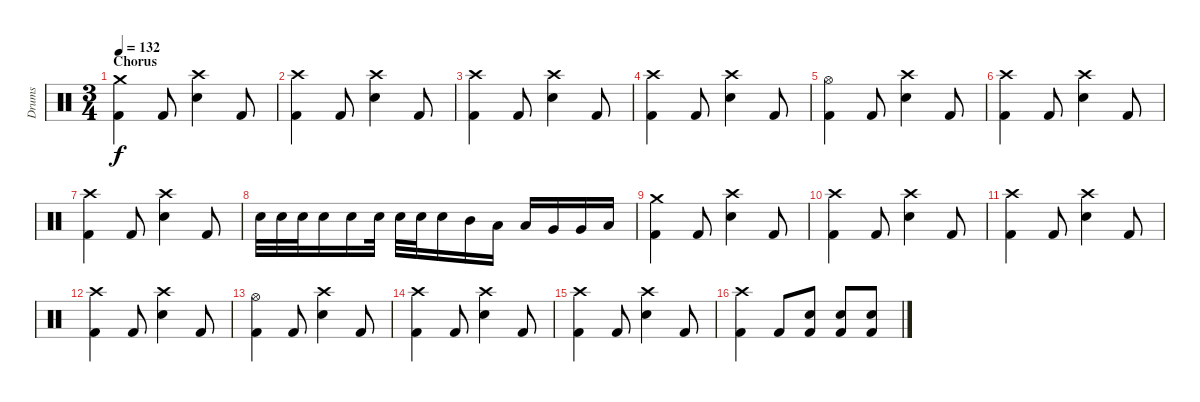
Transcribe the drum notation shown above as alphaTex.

\track ("Drums" "Drums") {instrument percussion}
\staff {score}
\articulation defaults
\ts (3 4)
\section ("" "Chorus")
\tempo 132
\clef neutral
\ks c
("Crash medium (hit)" "Kick (hit) 2").4{dy f} "Kick (hit) 2".8 ("Crash high (hit)" "Snare (hit) 2").4 "Kick (hit) 2".8 |
("Crash high (hit)" "Kick (hit) 2").4 "Kick (hit) 2".8 ("Crash high (hit)" "Snare (hit) 2").4 "Kick (hit) 2".8 |
("Crash high (hit)" "Kick (hit) 2").4 "Kick (hit) 2".8 ("Crash high (hit)" "Snare (hit) 2").4 "Kick (hit) 2".8 |
("Crash high (hit)" "Kick (hit) 2").4 "Kick (hit) 2".8 ("Crash high (hit)" "Snare (hit) 2").4 "Kick (hit) 2".8 |
("Hi-Hat (open)" "Kick (hit) 2").4 "Kick (hit) 2".8 ("Crash high (hit)" "Snare (hit) 2").4 "Kick (hit) 2".8 |
("Crash high (hit)" "Kick (hit) 2").4 "Kick (hit) 2".8 ("Crash high (hit)" "Snare (hit) 2").4 "Kick (hit) 2".8 |
("Crash high (hit)" "Kick (hit) 2").4 "Kick (hit) 2".8 ("Crash high (hit)" "Snare (hit) 2").4 "Kick (hit) 2".8 |
"Snare (hit) 2".32 "Snare (hit) 2".32 "Snare (hit) 2".32 "Snare (hit) 2".16 "Snare (hit) 2".16 "Snare (hit) 2".32 "Snare (hit) 2".32 "Snare (hit) 2".32 "Snare (hit) 2".16 "Mid Tom (hit)".16 "Low Tom (hit)".16 "Low Tom (hit)".16 "Very Low Tom (hit)".16 "Very Low Tom (hit)".16 "Low Floor Tom (hit)".16 |
("Crash medium (hit)" "Kick (hit) 2").4 "Kick (hit) 2".8 ("Crash high (hit)" "Snare (hit) 2").4 "Kick (hit) 2".8 |
("Crash high (hit)" "Kick (hit) 2").4 "Kick (hit) 2".8 ("Crash high (hit)" "Snare (hit) 2").4 "Kick (hit) 2".8 |
("Crash high (hit)" "Kick (hit) 2").4 "Kick (hit) 2".8 ("Crash high (hit)" "Snare (hit) 2").4 "Kick (hit) 2".8 |
("Crash high (hit)" "Kick (hit) 2").4 "Kick (hit) 2".8 ("Crash high (hit)" "Snare (hit) 2").4 "Kick (hit) 2".8 |
("Hi-Hat (open)" "Kick (hit) 2").4 "Kick (hit) 2".8 ("Crash high (hit)" "Snare (hit) 2").4 "Kick (hit) 2".8 |
("Crash high (hit)" "Kick (hit) 2").4 "Kick (hit) 2".8 ("Crash high (hit)" "Snare (hit) 2").4 "Kick (hit) 2".8 |
("Crash high (hit)" "Kick (hit) 2").4 "Kick (hit) 2".8 ("Crash high (hit)" "Snare (hit) 2").4 "Kick (hit) 2".8 |
("Crash high (hit)" "Kick (hit) 2").4 "Kick (hit) 2".8 ("Snare (hit) 2" "Kick (hit) 2").8 ("Snare (hit) 2" "Kick (hit) 2").8 ("Snare (hit) 2" "Kick (hit) 2").8
